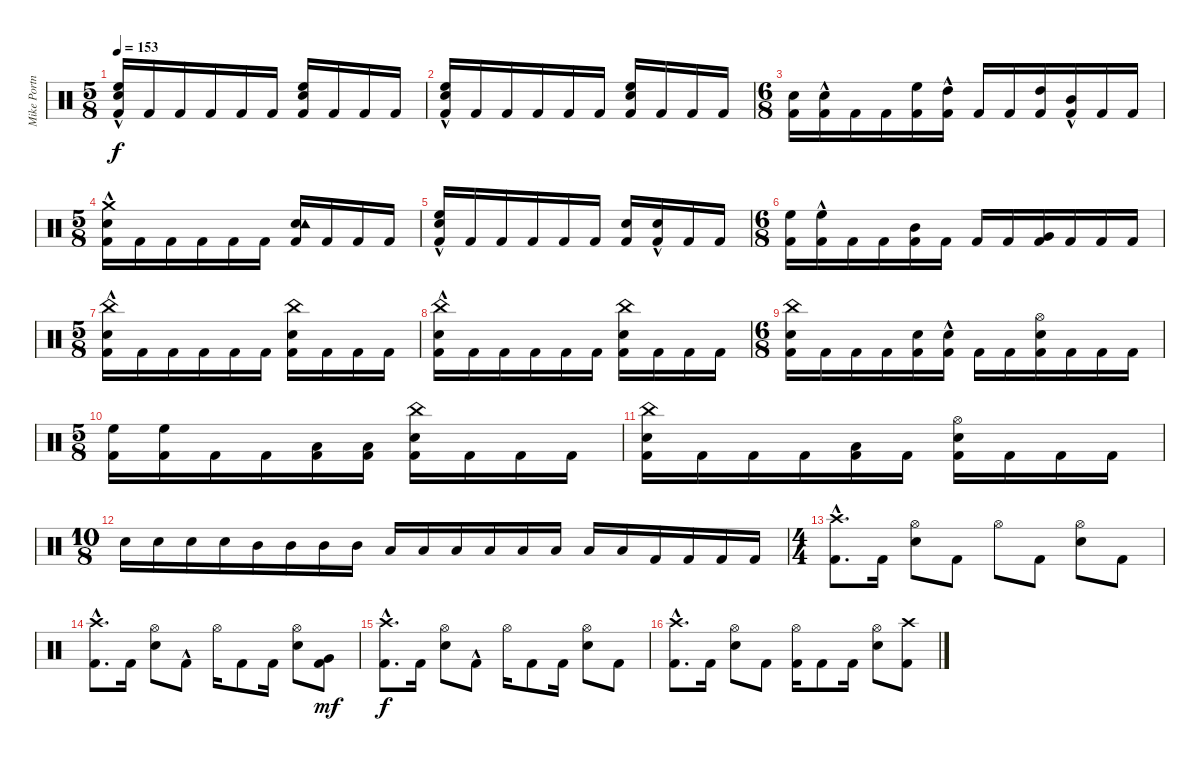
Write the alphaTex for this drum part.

\track ("Mike Portnoy Drums" "Mike Portn") {instrument percussion}
\staff {score}
\articulation defaults
\ts (5 8)
\tempo 153
\clef neutral
\ks c
("Kick (hit) 2" "High Floor Tom (hit)"{hac} "Electric Snare (hit)"{hac}).16{dy f} "Kick (hit) 2".16 "Kick (hit) 2".16 "Kick (hit) 2".16 "Kick (hit) 2".16 "Kick (hit) 2".16 ("Kick (hit) 2" "Electric Snare (hit)" "High Floor Tom (hit)").16 "Kick (hit) 2".16 "Kick (hit) 2".16 "Kick (hit) 2".16 |
("Kick (hit) 2" "Electric Snare (hit)"{hac} "High Floor Tom (hit)"{hac}).16 "Kick (hit) 2".16 "Kick (hit) 2".16 "Kick (hit) 2".16 "Kick (hit) 2".16 "Kick (hit) 2".16 ("Kick (hit) 2" "High Floor Tom (hit)" "Electric Snare (hit)").16 "Kick (hit) 2".16 "Kick (hit) 2".16 "Kick (hit) 2".16 |
\ts (6 8)
("Kick (hit) 2" "Electric Snare (hit)").16 ("Kick (hit) 2" "Electric Snare (hit)"{hac}).16 "Kick (hit) 2".16 "Kick (hit) 2".16 ("Kick (hit) 2" "High Floor Tom (hit)").16 ("Kick (hit) 2" "High Tom (hit)"{hac}).16 "Kick (hit) 2".16 "Kick (hit) 2".16 ("Kick (hit) 2" "High Tom (hit)").16 ("Kick (hit) 2" "Mid Tom (hit)"{hac}).16 "Kick (hit) 2".16 "Kick (hit) 2".16 |
\ts (5 8)
("Kick (hit) 2" "Crash medium (hit)"{hac} "Electric Snare (hit)"{hac}).16 "Kick (hit) 2".16 "Kick (hit) 2".16 "Kick (hit) 2".16 "Kick (hit) 2".16 "Kick (hit) 2".16 ("Kick (hit) 2" "Electric Snare (hit)" "Tambourine (hit)").16 "Kick (hit) 2".16 "Kick (hit) 2".16 "Kick (hit) 2".16 |
("Kick (hit) 2" "Electric Snare (hit)"{hac} "High Floor Tom (hit)"{hac}).16 "Kick (hit) 2".16 "Kick (hit) 2".16 "Kick (hit) 2".16 "Kick (hit) 2".16 "Kick (hit) 2".16 ("Kick (hit) 2" "Electric Snare (hit)").16 ("Kick (hit) 2" "Electric Snare (hit)"{hac}).16 "Kick (hit) 2".16 "Kick (hit) 2".16 |
\ts (6 8)
("Kick (hit) 2" "High Floor Tom (hit)").16 ("Kick (hit) 2" "High Floor Tom (hit)"{hac}).16 "Kick (hit) 2".16 "Kick (hit) 2".16 ("Kick (hit) 2" "Mid Tom (hit)").16 "Kick (hit) 2".16 "Kick (hit) 2".16 "Kick (hit) 2".16 ("Kick (hit) 2" "Very Low Tom (hit)").16 "Kick (hit) 2".16 "Kick (hit) 2".16 "Kick (hit) 2".16 |
\ts (5 8)
("Kick (hit) 2" "China (hit)"{hac} "Electric Snare (hit)"{hac}).16 "Kick (hit) 2".16 "Kick (hit) 2".16 "Kick (hit) 2".16 "Kick (hit) 2".16 "Kick (hit) 2".16 ("Kick (hit) 2" "Electric Snare (hit)" "China (hit)").16 "Kick (hit) 2".16 "Kick (hit) 2".16 "Kick (hit) 2".16 |
("Kick (hit) 2" "Electric Snare (hit)"{hac} "China (hit)"{hac}).16 "Kick (hit) 2".16 "Kick (hit) 2".16 "Kick (hit) 2".16 "Kick (hit) 2".16 "Kick (hit) 2".16 ("Kick (hit) 2" "Electric Snare (hit)" "China (hit)").16 "Kick (hit) 2".16 "Kick (hit) 2".16 "Kick (hit) 2".16 |
\ts (6 8)
("Kick (hit) 2" "Electric Snare (hit)" "China (hit)").16 "Kick (hit) 2".16 "Kick (hit) 2".16 "Kick (hit) 2".16 ("Kick (hit) 2" "Electric Snare (hit)").16 ("Kick (hit) 2" "Electric Snare (hit)"{hac}).16 "Kick (hit) 2".16 "Kick (hit) 2".16 ("Kick (hit) 2" "Electric Snare (hit)" "Hi-Hat (open)").16 "Kick (hit) 2".16 "Kick (hit) 2".16 "Kick (hit) 2".16 |
\ts (5 8)
("Kick (hit) 2" "High Floor Tom (hit)").16 ("Kick (hit) 2" "High Floor Tom (hit)").16 "Kick (hit) 2".16 "Kick (hit) 2".16 ("Kick (hit) 2" "Low Tom (hit)").16 ("Kick (hit) 2" "Low Tom (hit)").16 ("Kick (hit) 2" "Electric Snare (hit)" "China (hit)").16 "Kick (hit) 2".16 "Kick (hit) 2".16 "Kick (hit) 2".16 |
("Kick (hit) 2" "Electric Snare (hit)" "China (hit)").16 "Kick (hit) 2".16 "Kick (hit) 2".16 "Kick (hit) 2".16 ("Kick (hit) 2" "Low Tom (hit)").16 "Kick (hit) 2".16 ("Kick (hit) 2" "Electric Snare (hit)" "Hi-Hat (open)").16 "Kick (hit) 2".16 "Kick (hit) 2".16 "Kick (hit) 2".16 |
\ts (10 8)
"Snare (hit) 2".16 "Snare (hit) 2".16 "Snare (hit) 2".16 "Snare (hit) 2".16 "Mid Tom (hit)".16 "Mid Tom (hit)".16 "Mid Tom (hit)".16 "Mid Tom (hit)".16 "Low Tom (hit)".16 "Low Tom (hit)".16 "Low Tom (hit)".16 "Low Tom (hit)".16 "Low Floor Tom (hit)".16 "Low Floor Tom (hit)".16 "Low Floor Tom (hit)".16 "Low Floor Tom (hit)".16 "Kick (hit) 2".16 "Kick (hit) 2".16 "Kick (hit) 2".16 "Kick (hit) 2".16 |
\ts (4 4)
("Crash high (hit)" "Kick (hit) 2"{hac}).8{d} "Kick (hit) 2".16 ("Electric Snare (hit)" "Hi-Hat (open)").8 "Kick (hit) 2".8 "Hi-Hat (open)".8 "Kick (hit) 2".8 ("Electric Snare (hit)" "Hi-Hat (open)").8 "Kick (hit) 2".8 |
("Kick (hit) 2"{hac} "Crash high (hit)").8{d} "Kick (hit) 2".16 ("Electric Snare (hit)" "Hi-Hat (open)").8 "Kick (hit) 2"{hac}.8 "Hi-Hat (open)".16 "Kick (hit) 2".8 "Kick (hit) 2".16 ("Electric Snare (hit)" "Hi-Hat (open)").8 ("Kick (hit) 2" "Very Low Tom (hit)").8{dy mf} |
("Crash high (hit)" "Kick (hit) 2"{hac}).8{d dy f} "Kick (hit) 2".16 ("Electric Snare (hit)" "Hi-Hat (open)").8 "Kick (hit) 2"{hac}.8 "Hi-Hat (open)".16 "Kick (hit) 2".8 "Kick (hit) 2".16 ("Electric Snare (hit)" "Hi-Hat (open)").8 "Kick (hit) 2".8 |
("Kick (hit) 2"{hac} "Crash high (hit)").8{d} "Kick (hit) 2".16 ("Electric Snare (hit)" "Hi-Hat (open)").8 "Kick (hit) 2".8 ("Hi-Hat (open)" "Kick (hit) 2").16 "Kick (hit) 2".8 "Kick (hit) 2".16 ("Electric Snare (hit)" "Hi-Hat (open)").8 ("Kick (hit) 2" "Crash high (hit)").8
